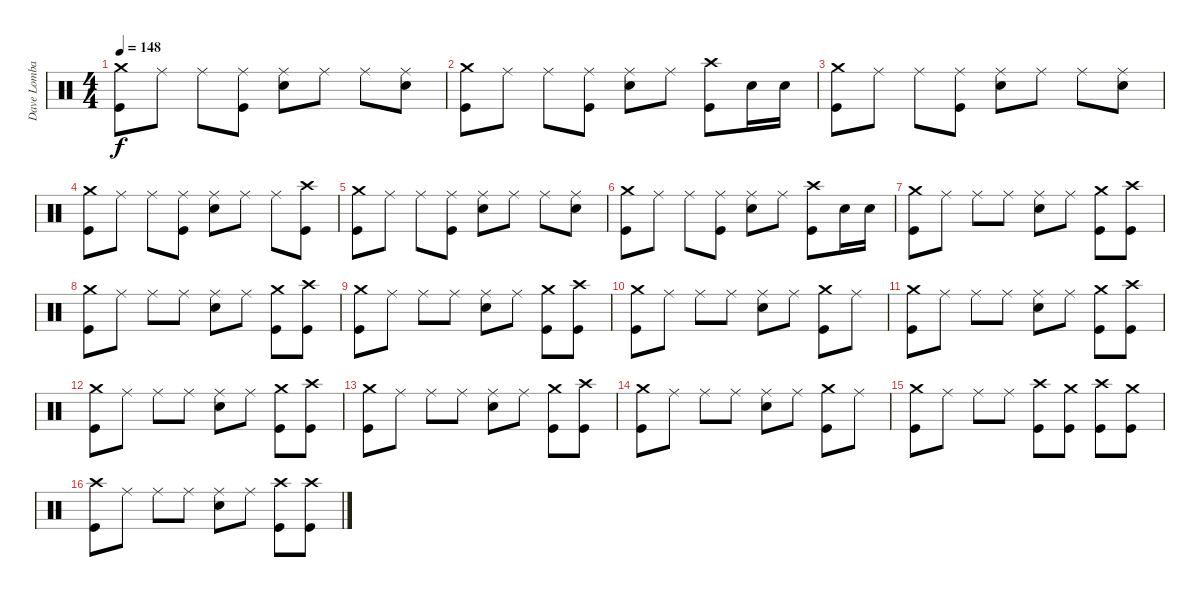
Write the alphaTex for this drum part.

\track ("Dave Lombardo (Drum)" "Dave Lomba") {instrument percussion}
\staff {score}
\articulation defaults
\ts (4 4)
\tempo 148
\clef neutral
\ks c
("Crash medium (hit)" "Kick (hit)").8{dy f} "Ride (middle)".8 "Ride (middle)".8 ("Kick (hit)" "Ride (middle)").8 ("Snare (hit) 2" "Ride (middle)").8 "Ride (middle)".8 "Ride (middle)".8 ("Snare (hit) 2" "Ride (middle)").8 |
("Crash medium (hit)" "Kick (hit)").8 "Ride (middle)".8 "Ride (middle)".8 ("Kick (hit)" "Ride (middle)").8 ("Snare (hit) 2" "Ride (middle)").8 "Ride (middle)".8 ("Crash high (hit)" "Kick (hit)").8 "Snare (hit) 2".16 "Snare (hit) 2".16 |
("Crash medium (hit)" "Kick (hit)").8 "Ride (middle)".8 "Ride (middle)".8 ("Kick (hit)" "Ride (middle)").8 ("Snare (hit) 2" "Ride (middle)").8 "Ride (middle)".8 "Ride (middle)".8 ("Snare (hit) 2" "Ride (middle)").8 |
("Crash medium (hit)" "Kick (hit)").8 "Ride (middle)".8 "Ride (middle)".8 ("Kick (hit)" "Ride (middle)").8 ("Snare (hit) 2" "Ride (middle)").8 "Ride (middle)".8 "Ride (middle)".8 ("Kick (hit)" "Crash high (hit)").8 |
("Crash medium (hit)" "Kick (hit)").8 "Ride (middle)".8 "Ride (middle)".8 ("Kick (hit)" "Ride (middle)").8 ("Snare (hit) 2" "Ride (middle)").8 "Ride (middle)".8 "Ride (middle)".8 ("Snare (hit) 2" "Ride (middle)").8 |
("Crash medium (hit)" "Kick (hit)").8 "Ride (middle)".8 "Ride (middle)".8 ("Kick (hit)" "Ride (middle)").8 ("Snare (hit) 2" "Ride (middle)").8 "Ride (middle)".8 ("Crash high (hit)" "Kick (hit)").8 "Snare (hit) 2".16 "Snare (hit) 2".16 |
("Crash medium (hit)" "Kick (hit)").8 "Ride (middle)".8 "Ride (middle)".8 "Ride (middle)".8 ("Snare (hit) 2" "Ride (middle)").8 "Ride (middle)".8 ("Kick (hit)" "Crash medium (hit)").8 ("Kick (hit)" "Crash high (hit)").8 |
("Crash medium (hit)" "Kick (hit)").8 "Ride (middle)".8 "Ride (middle)".8 "Ride (middle)".8 ("Snare (hit) 2" "Ride (middle)").8 "Ride (middle)".8 ("Kick (hit)" "Crash medium (hit)").8 ("Kick (hit)" "Crash high (hit)").8 |
("Crash medium (hit)" "Kick (hit)").8 "Ride (middle)".8 "Ride (middle)".8 "Ride (middle)".8 ("Snare (hit) 2" "Ride (middle)").8 "Ride (middle)".8 ("Kick (hit)" "Crash medium (hit)").8 ("Kick (hit)" "Crash high (hit)").8 |
("Crash medium (hit)" "Kick (hit)").8 "Ride (middle)".8 "Ride (middle)".8 "Ride (middle)".8 ("Snare (hit) 2" "Ride (middle)").8 "Ride (middle)".8 ("Kick (hit)" "Crash medium (hit)").8 "Ride (middle)".8 |
("Crash medium (hit)" "Kick (hit)").8 "Ride (middle)".8 "Ride (middle)".8 "Ride (middle)".8 ("Snare (hit) 2" "Ride (middle)").8 "Ride (middle)".8 ("Kick (hit)" "Crash medium (hit)").8 ("Kick (hit)" "Crash high (hit)").8 |
("Crash medium (hit)" "Kick (hit)").8 "Ride (middle)".8 "Ride (middle)".8 "Ride (middle)".8 ("Snare (hit) 2" "Ride (middle)").8 "Ride (middle)".8 ("Kick (hit)" "Crash medium (hit)").8 ("Kick (hit)" "Crash high (hit)").8 |
("Crash medium (hit)" "Kick (hit)").8 "Ride (middle)".8 "Ride (middle)".8 "Ride (middle)".8 ("Snare (hit) 2" "Ride (middle)").8 "Ride (middle)".8 ("Kick (hit)" "Crash medium (hit)").8 ("Kick (hit)" "Crash high (hit)").8 |
("Crash medium (hit)" "Kick (hit)").8 "Ride (middle)".8 "Ride (middle)".8 "Ride (middle)".8 ("Snare (hit) 2" "Ride (middle)").8 "Ride (middle)".8 ("Kick (hit)" "Crash medium (hit)").8 "Ride (middle)".8 |
("Crash medium (hit)" "Kick (hit)").8 "Ride (middle)".8 "Ride (middle)".8 "Ride (middle)".8 ("Kick (hit)" "Crash high (hit)").8 ("Kick (hit)" "Crash medium (hit)").8 ("Kick (hit)" "Crash high (hit)").8 ("Kick (hit)" "Crash medium (hit)").8 |
("Kick (hit)" "Crash high (hit)").8 "Ride (middle)".8 "Ride (middle)".8 "Ride (middle)".8 ("Snare (hit) 2" "Ride (middle)").8 "Ride (middle)".8 ("Kick (hit)" "Crash high (hit)").8 ("Crash high (hit)" "Kick (hit)").8
